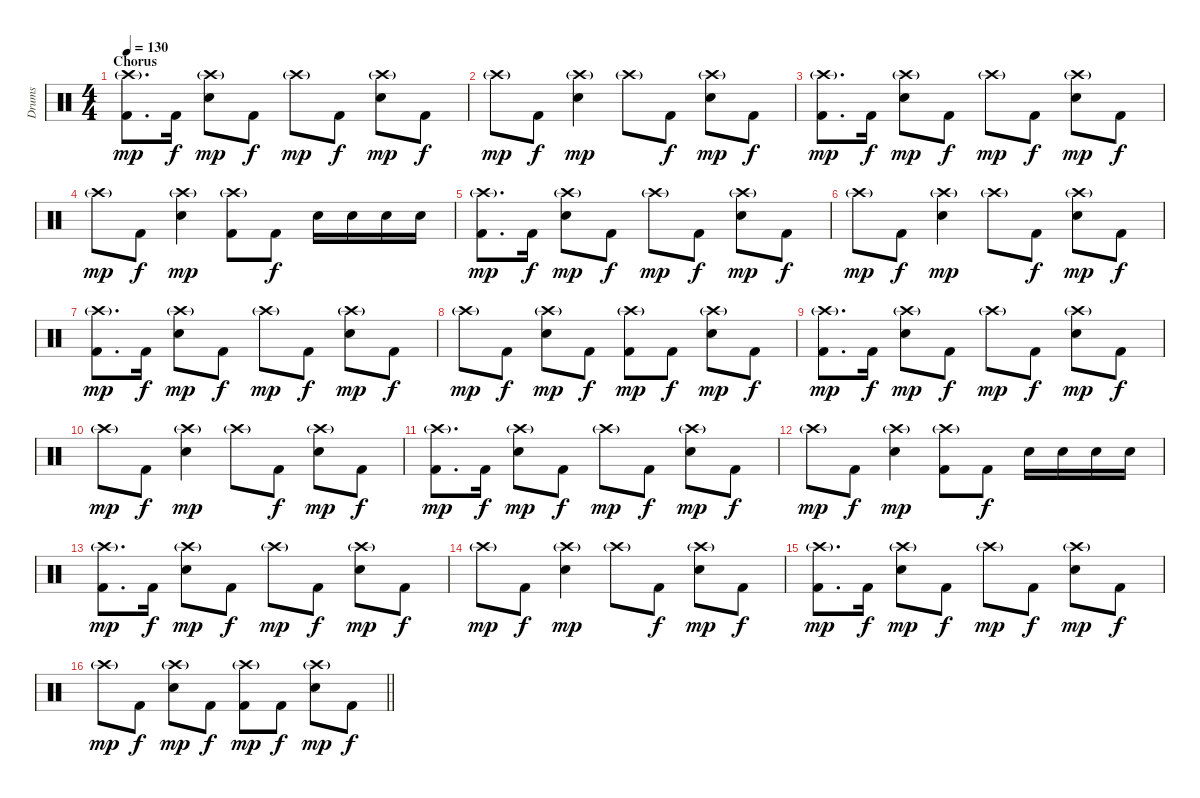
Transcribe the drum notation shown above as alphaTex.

\track ("Drums" "Drums") {instrument percussion}
\staff {score}
\articulation defaults
\ts (4 4)
\section ("" "Chorus")
\tempo 130
\clef neutral
\ks c
("Crash high (hit)"{g} "Kick (hit) 2").8{d dy mp} "Kick (hit) 2".16{dy f} ("Crash high (hit)"{g} "Electric Snare (hit)").8{dy mp} "Kick (hit) 2".8{dy f} "Crash high (hit)"{g}.8{dy mp} "Kick (hit) 2".8{dy f} ("Crash high (hit)"{g} "Electric Snare (hit)").8{dy mp} "Kick (hit) 2".8{dy f} |
"Crash high (hit)"{g}.8{dy mp} "Kick (hit) 2".8{dy f} ("Crash high (hit)"{g} "Electric Snare (hit)").4{dy mp} "Crash high (hit)"{g}.8 "Kick (hit) 2".8{dy f} ("Crash high (hit)"{g} "Electric Snare (hit)").8{dy mp} "Kick (hit) 2".8{dy f} |
("Crash high (hit)"{g} "Kick (hit) 2").8{d dy mp} "Kick (hit) 2".16{dy f} ("Crash high (hit)"{g} "Electric Snare (hit)").8{dy mp} "Kick (hit) 2".8{dy f} "Crash high (hit)"{g}.8{dy mp} "Kick (hit) 2".8{dy f} ("Crash high (hit)"{g} "Electric Snare (hit)").8{dy mp} "Kick (hit) 2".8{dy f} |
"Crash high (hit)"{g}.8{dy mp} "Kick (hit) 2".8{dy f} ("Crash high (hit)"{g} "Electric Snare (hit)").4{dy mp} ("Crash high (hit)"{g} "Kick (hit) 2").8 "Kick (hit) 2".8{dy f} "Electric Snare (hit)".16 "Electric Snare (hit)".16 "Electric Snare (hit)".16 "Electric Snare (hit)".16 |
("Crash high (hit)"{g} "Kick (hit) 2").8{d dy mp} "Kick (hit) 2".16{dy f} ("Crash high (hit)"{g} "Electric Snare (hit)").8{dy mp} "Kick (hit) 2".8{dy f} "Crash high (hit)"{g}.8{dy mp} "Kick (hit) 2".8{dy f} ("Crash high (hit)"{g} "Electric Snare (hit)").8{dy mp} "Kick (hit) 2".8{dy f} |
"Crash high (hit)"{g}.8{dy mp} "Kick (hit) 2".8{dy f} ("Crash high (hit)"{g} "Electric Snare (hit)").4{dy mp} "Crash high (hit)"{g}.8 "Kick (hit) 2".8{dy f} ("Crash high (hit)"{g} "Electric Snare (hit)").8{dy mp} "Kick (hit) 2".8{dy f} |
("Crash high (hit)"{g} "Kick (hit) 2").8{d dy mp} "Kick (hit) 2".16{dy f} ("Crash high (hit)"{g} "Electric Snare (hit)").8{dy mp} "Kick (hit) 2".8{dy f} "Crash high (hit)"{g}.8{dy mp} "Kick (hit) 2".8{dy f} ("Crash high (hit)"{g} "Electric Snare (hit)").8{dy mp} "Kick (hit) 2".8{dy f} |
"Crash high (hit)"{g}.8{dy mp} "Kick (hit) 2".8{dy f} ("Crash high (hit)"{g} "Electric Snare (hit)").8{dy mp} "Kick (hit) 2".8{dy f} ("Crash high (hit)"{g} "Kick (hit) 2").8{dy mp} "Kick (hit) 2".8{dy f} ("Crash high (hit)"{g} "Electric Snare (hit)").8{dy mp} "Kick (hit) 2".8{dy f} |
("Crash high (hit)"{g} "Kick (hit) 2").8{d dy mp} "Kick (hit) 2".16{dy f} ("Crash high (hit)"{g} "Electric Snare (hit)").8{dy mp} "Kick (hit) 2".8{dy f} "Crash high (hit)"{g}.8{dy mp} "Kick (hit) 2".8{dy f} ("Crash high (hit)"{g} "Electric Snare (hit)").8{dy mp} "Kick (hit) 2".8{dy f} |
"Crash high (hit)"{g}.8{dy mp} "Kick (hit) 2".8{dy f} ("Crash high (hit)"{g} "Electric Snare (hit)").4{dy mp} "Crash high (hit)"{g}.8 "Kick (hit) 2".8{dy f} ("Crash high (hit)"{g} "Electric Snare (hit)").8{dy mp} "Kick (hit) 2".8{dy f} |
("Crash high (hit)"{g} "Kick (hit) 2").8{d dy mp} "Kick (hit) 2".16{dy f} ("Crash high (hit)"{g} "Electric Snare (hit)").8{dy mp} "Kick (hit) 2".8{dy f} "Crash high (hit)"{g}.8{dy mp} "Kick (hit) 2".8{dy f} ("Crash high (hit)"{g} "Electric Snare (hit)").8{dy mp} "Kick (hit) 2".8{dy f} |
"Crash high (hit)"{g}.8{dy mp} "Kick (hit) 2".8{dy f} ("Crash high (hit)"{g} "Electric Snare (hit)").4{dy mp} ("Crash high (hit)"{g} "Kick (hit) 2").8 "Kick (hit) 2".8{dy f} "Electric Snare (hit)".16 "Electric Snare (hit)".16 "Electric Snare (hit)".16 "Electric Snare (hit)".16 |
("Crash high (hit)"{g} "Kick (hit) 2").8{d dy mp} "Kick (hit) 2".16{dy f} ("Crash high (hit)"{g} "Electric Snare (hit)").8{dy mp} "Kick (hit) 2".8{dy f} "Crash high (hit)"{g}.8{dy mp} "Kick (hit) 2".8{dy f} ("Crash high (hit)"{g} "Electric Snare (hit)").8{dy mp} "Kick (hit) 2".8{dy f} |
"Crash high (hit)"{g}.8{dy mp} "Kick (hit) 2".8{dy f} ("Crash high (hit)"{g} "Electric Snare (hit)").4{dy mp} "Crash high (hit)"{g}.8 "Kick (hit) 2".8{dy f} ("Crash high (hit)"{g} "Electric Snare (hit)").8{dy mp} "Kick (hit) 2".8{dy f} |
("Crash high (hit)"{g} "Kick (hit) 2").8{d dy mp} "Kick (hit) 2".16{dy f} ("Crash high (hit)"{g} "Electric Snare (hit)").8{dy mp} "Kick (hit) 2".8{dy f} "Crash high (hit)"{g}.8{dy mp} "Kick (hit) 2".8{dy f} ("Crash high (hit)"{g} "Electric Snare (hit)").8{dy mp} "Kick (hit) 2".8{dy f} |
\barLineRight lightlight "Crash high (hit)"{g}.8{dy mp} "Kick (hit) 2".8{dy f}
("Crash high (hit)"{g} "Electric Snare (hit)").8{dy mp} "Kick (hit) 2".8{dy f} ("Crash high (hit)"{g} "Kick (hit) 2").8{dy mp} "Kick (hit) 2".8{dy f} ("Crash high (hit)"{g} "Electric Snare (hit)").8{dy mp} "Kick (hit) 2".8{dy f}
